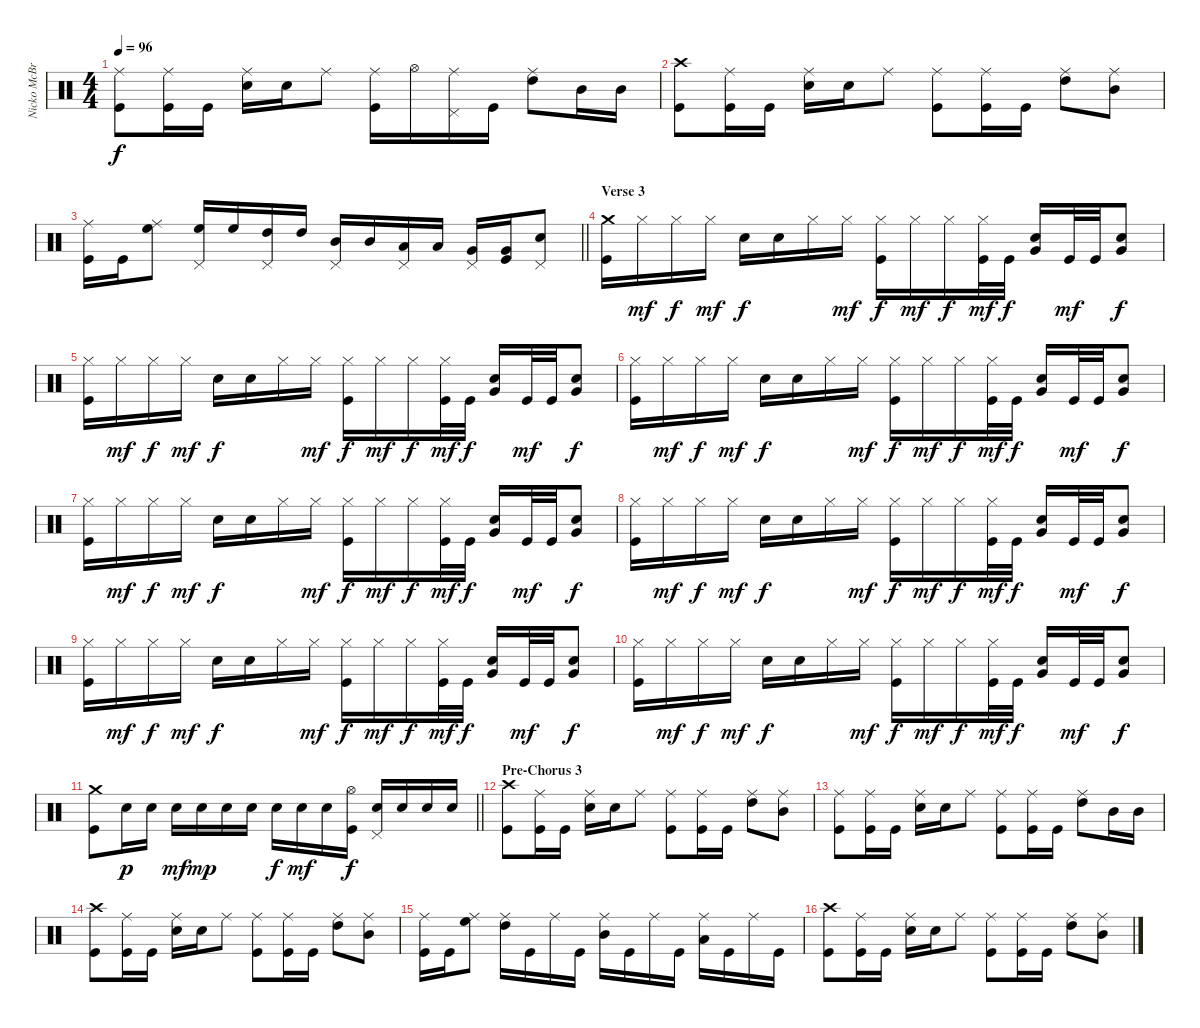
\track ("Nicko McBrain" "Nicko McBr") {instrument percussion}
\staff {score}
\articulation defaults
\ts (4 4)
\tempo 96
\clef neutral
\ks c
("Ride (middle)" "Kick (hit)").8{dy f} ("Ride (middle)" "Kick (hit)").16 "Kick (hit)".16 ("Ride (middle)" "Electric Snare (hit)").16 "Electric Snare (hit)".16 "Ride (middle)".8 ("Ride (middle)" "Kick (hit)").16 "Hi-Hat (open)".16 ("Ride (middle)" "Pedal Hi-Hat (hit)").16 "Kick (hit)".16 ("Ride (middle)" "High Tom (hit)").8 "Mid Tom (hit)".16 "Mid Tom (hit)".16 |
("Crash high (hit)" "Kick (hit)").8 ("Ride (middle)" "Kick (hit)").16 "Kick (hit)".16 ("Ride (middle)" "Electric Snare (hit)").16 "Electric Snare (hit)".16 "Ride (middle)".8 ("Ride (middle)" "Kick (hit)").8 ("Ride (middle)" "Kick (hit)").16 "Kick (hit)".16 ("Ride (middle)" "High Tom (hit)").8 ("Ride (middle)" "Mid Tom (hit)").8 |
\barLineRight lightlight
("Ride (middle)" "Kick (hit)").16 "Kick (hit)".16 ("Ride (middle)" "High Floor Tom (hit)").8 ("High Floor Tom (hit)" "Pedal Hi-Hat (hit)").16 "High Floor Tom (hit)".16 ("High Tom (hit)" "Pedal Hi-Hat (hit)").16 "High Tom (hit)".16 ("Mid Tom (hit)" "Pedal Hi-Hat (hit)").16 "Mid Tom (hit)".16 ("Low Tom (hit)" "Pedal Hi-Hat (hit)").16 "Low Tom (hit)".16 ("Very Low Tom (hit)" "Pedal Hi-Hat (hit)").16 ("Very Low Tom (hit)" "Kick (hit)").16 ("Electric Snare (hit)" "Pedal Hi-Hat (hit)").8 |
\section ("" "Verse 3")
("Crash medium (hit)" "Kick (hit)").16 "Hi-Hat (closed)".16{dy mf} "Hi-Hat (closed)".16{dy f} "Hi-Hat (closed)".16{dy mf} "Electric Snare (hit)".16{dy f} "Electric Snare (hit)".16 "Hi-Hat (closed)".16 "Hi-Hat (closed)".16{dy mf} ("Hi-Hat (closed)" "Kick (hit)").16{dy f} "Hi-Hat (closed)".16{dy mf} "Hi-Hat (closed)".16{dy f} ("Hi-Hat (closed)" "Kick (hit)").32{dy mf} "Kick (hit)".32{dy f} ("Electric Snare (hit)" "Very Low Tom (hit)").16 "Kick (hit)".32{dy mf} "Kick (hit)".32 ("Electric Snare (hit)" "Very Low Tom (hit)").8{dy f} |
("Hi-Hat (closed)" "Kick (hit)").16 "Hi-Hat (closed)".16{dy mf} "Hi-Hat (closed)".16{dy f} "Hi-Hat (closed)".16{dy mf} "Electric Snare (hit)".16{dy f} "Electric Snare (hit)".16 "Hi-Hat (closed)".16 "Hi-Hat (closed)".16{dy mf} ("Hi-Hat (closed)" "Kick (hit)").16{dy f} "Hi-Hat (closed)".16{dy mf} "Hi-Hat (closed)".16{dy f} ("Hi-Hat (closed)" "Kick (hit)").32{dy mf} "Kick (hit)".32{dy f} ("Electric Snare (hit)" "Very Low Tom (hit)").16 "Kick (hit)".32{dy mf} "Kick (hit)".32 ("Electric Snare (hit)" "Very Low Tom (hit)").8{dy f} |
("Hi-Hat (closed)" "Kick (hit)").16 "Hi-Hat (closed)".16{dy mf} "Hi-Hat (closed)".16{dy f} "Hi-Hat (closed)".16{dy mf} "Electric Snare (hit)".16{dy f} "Electric Snare (hit)".16 "Hi-Hat (closed)".16 "Hi-Hat (closed)".16{dy mf} ("Hi-Hat (closed)" "Kick (hit)").16{dy f} "Hi-Hat (closed)".16{dy mf} "Hi-Hat (closed)".16{dy f} ("Hi-Hat (closed)" "Kick (hit)").32{dy mf} "Kick (hit)".32{dy f} ("Electric Snare (hit)" "Very Low Tom (hit)").16 "Kick (hit)".32{dy mf} "Kick (hit)".32 ("Electric Snare (hit)" "Very Low Tom (hit)").8{dy f} |
("Hi-Hat (closed)" "Kick (hit)").16 "Hi-Hat (closed)".16{dy mf} "Hi-Hat (closed)".16{dy f} "Hi-Hat (closed)".16{dy mf} "Electric Snare (hit)".16{dy f} "Electric Snare (hit)".16 "Hi-Hat (closed)".16 "Hi-Hat (closed)".16{dy mf} ("Hi-Hat (closed)" "Kick (hit)").16{dy f} "Hi-Hat (closed)".16{dy mf} "Hi-Hat (closed)".16{dy f} ("Hi-Hat (closed)" "Kick (hit)").32{dy mf} "Kick (hit)".32{dy f} ("Electric Snare (hit)" "Very Low Tom (hit)").16 "Kick (hit)".32{dy mf} "Kick (hit)".32 ("Electric Snare (hit)" "Very Low Tom (hit)").8{dy f} |
("Hi-Hat (closed)" "Kick (hit)").16 "Hi-Hat (closed)".16{dy mf} "Hi-Hat (closed)".16{dy f} "Hi-Hat (closed)".16{dy mf} "Electric Snare (hit)".16{dy f} "Electric Snare (hit)".16 "Hi-Hat (closed)".16 "Hi-Hat (closed)".16{dy mf} ("Hi-Hat (closed)" "Kick (hit)").16{dy f} "Hi-Hat (closed)".16{dy mf} "Hi-Hat (closed)".16{dy f} ("Hi-Hat (closed)" "Kick (hit)").32{dy mf} "Kick (hit)".32{dy f} ("Electric Snare (hit)" "Very Low Tom (hit)").16 "Kick (hit)".32{dy mf} "Kick (hit)".32 ("Electric Snare (hit)" "Very Low Tom (hit)").8{dy f} |
("Hi-Hat (closed)" "Kick (hit)").16 "Hi-Hat (closed)".16{dy mf} "Hi-Hat (closed)".16{dy f} "Hi-Hat (closed)".16{dy mf} "Electric Snare (hit)".16{dy f} "Electric Snare (hit)".16 "Hi-Hat (closed)".16 "Hi-Hat (closed)".16{dy mf} ("Hi-Hat (closed)" "Kick (hit)").16{dy f} "Hi-Hat (closed)".16{dy mf} "Hi-Hat (closed)".16{dy f} ("Hi-Hat (closed)" "Kick (hit)").32{dy mf} "Kick (hit)".32{dy f} ("Electric Snare (hit)" "Very Low Tom (hit)").16 "Kick (hit)".32{dy mf} "Kick (hit)".32 ("Electric Snare (hit)" "Very Low Tom (hit)").8{dy f} |
("Hi-Hat (closed)" "Kick (hit)").16 "Hi-Hat (closed)".16{dy mf} "Hi-Hat (closed)".16{dy f} "Hi-Hat (closed)".16{dy mf} "Electric Snare (hit)".16{dy f} "Electric Snare (hit)".16 "Hi-Hat (closed)".16 "Hi-Hat (closed)".16{dy mf} ("Hi-Hat (closed)" "Kick (hit)").16{dy f} "Hi-Hat (closed)".16{dy mf} "Hi-Hat (closed)".16{dy f} ("Hi-Hat (closed)" "Kick (hit)").32{dy mf} "Kick (hit)".32{dy f} ("Electric Snare (hit)" "Very Low Tom (hit)").16 "Kick (hit)".32{dy mf} "Kick (hit)".32 ("Electric Snare (hit)" "Very Low Tom (hit)").8{dy f} |
\barLineRight lightlight
("Crash medium (hit)" "Kick (hit)").8 "Electric Snare (hit)".16{dy p} "Electric Snare (hit)".16 "Electric Snare (hit)".16{dy mf} "Electric Snare (hit)".16{dy mp} "Electric Snare (hit)".16 "Electric Snare (hit)".16 "Electric Snare (hit)".16{dy f} "Electric Snare (hit)".16{dy mf} "Electric Snare (hit)".16 ("Hi-Hat (open)" "Kick (hit)").16{dy f} ("Electric Snare (hit)" "Pedal Hi-Hat (hit)").16 "Electric Snare (hit)".16 "Electric Snare (hit)".16 "Electric Snare (hit)".16 |
\section ("" "Pre-Chorus 3")
("Crash high (hit)" "Kick (hit)").8 ("Ride (middle)" "Kick (hit)").16 "Kick (hit)".16 ("Ride (middle)" "Electric Snare (hit)").16 "Electric Snare (hit)".16 "Ride (middle)".8 ("Ride (middle)" "Kick (hit)").8 ("Ride (middle)" "Kick (hit)").16 "Kick (hit)".16 ("Ride (middle)" "High Tom (hit)").8 ("Ride (middle)" "Mid Tom (hit)").8 |
("Ride (middle)" "Kick (hit)").8 ("Ride (middle)" "Kick (hit)").16 "Kick (hit)".16 ("Ride (middle)" "Electric Snare (hit)").16 "Electric Snare (hit)".16 "Ride (middle)".8 ("Ride (middle)" "Kick (hit)").8 ("Ride (middle)" "Kick (hit)").16 "Kick (hit)".16 ("Ride (middle)" "High Tom (hit)").8 "Mid Tom (hit)".16 "Mid Tom (hit)".16 |
("Crash high (hit)" "Kick (hit)").8 ("Ride (middle)" "Kick (hit)").16 "Kick (hit)".16 ("Ride (middle)" "Electric Snare (hit)").16 "Electric Snare (hit)".16 "Ride (middle)".8 ("Ride (middle)" "Kick (hit)").8 ("Ride (middle)" "Kick (hit)").16 "Kick (hit)".16 ("Ride (middle)" "High Tom (hit)").8 ("Ride (middle)" "Mid Tom (hit)").8 |
("Ride (middle)" "Kick (hit)").16 "Kick (hit)".16 ("Ride (middle)" "High Floor Tom (hit)").8 ("Ride (middle)" "High Tom (hit)").16 "Kick (hit)".16 "Ride (middle)".16 "Kick (hit)".16 ("Ride (middle)" "Mid Tom (hit)").16 "Kick (hit)".16 "Ride (middle)".16 "Kick (hit)".16 ("Ride (middle)" "Low Tom (hit)").16 "Kick (hit)".16 "Ride (middle)".16 "Kick (hit)".16 |
("Crash high (hit)" "Kick (hit)").8 ("Ride (middle)" "Kick (hit)").16 "Kick (hit)".16 ("Ride (middle)" "Electric Snare (hit)").16 "Electric Snare (hit)".16 "Ride (middle)".8 ("Ride (middle)" "Kick (hit)").8 ("Ride (middle)" "Kick (hit)").16 "Kick (hit)".16 ("Ride (middle)" "High Tom (hit)").8 ("Ride (middle)" "Mid Tom (hit)").8
